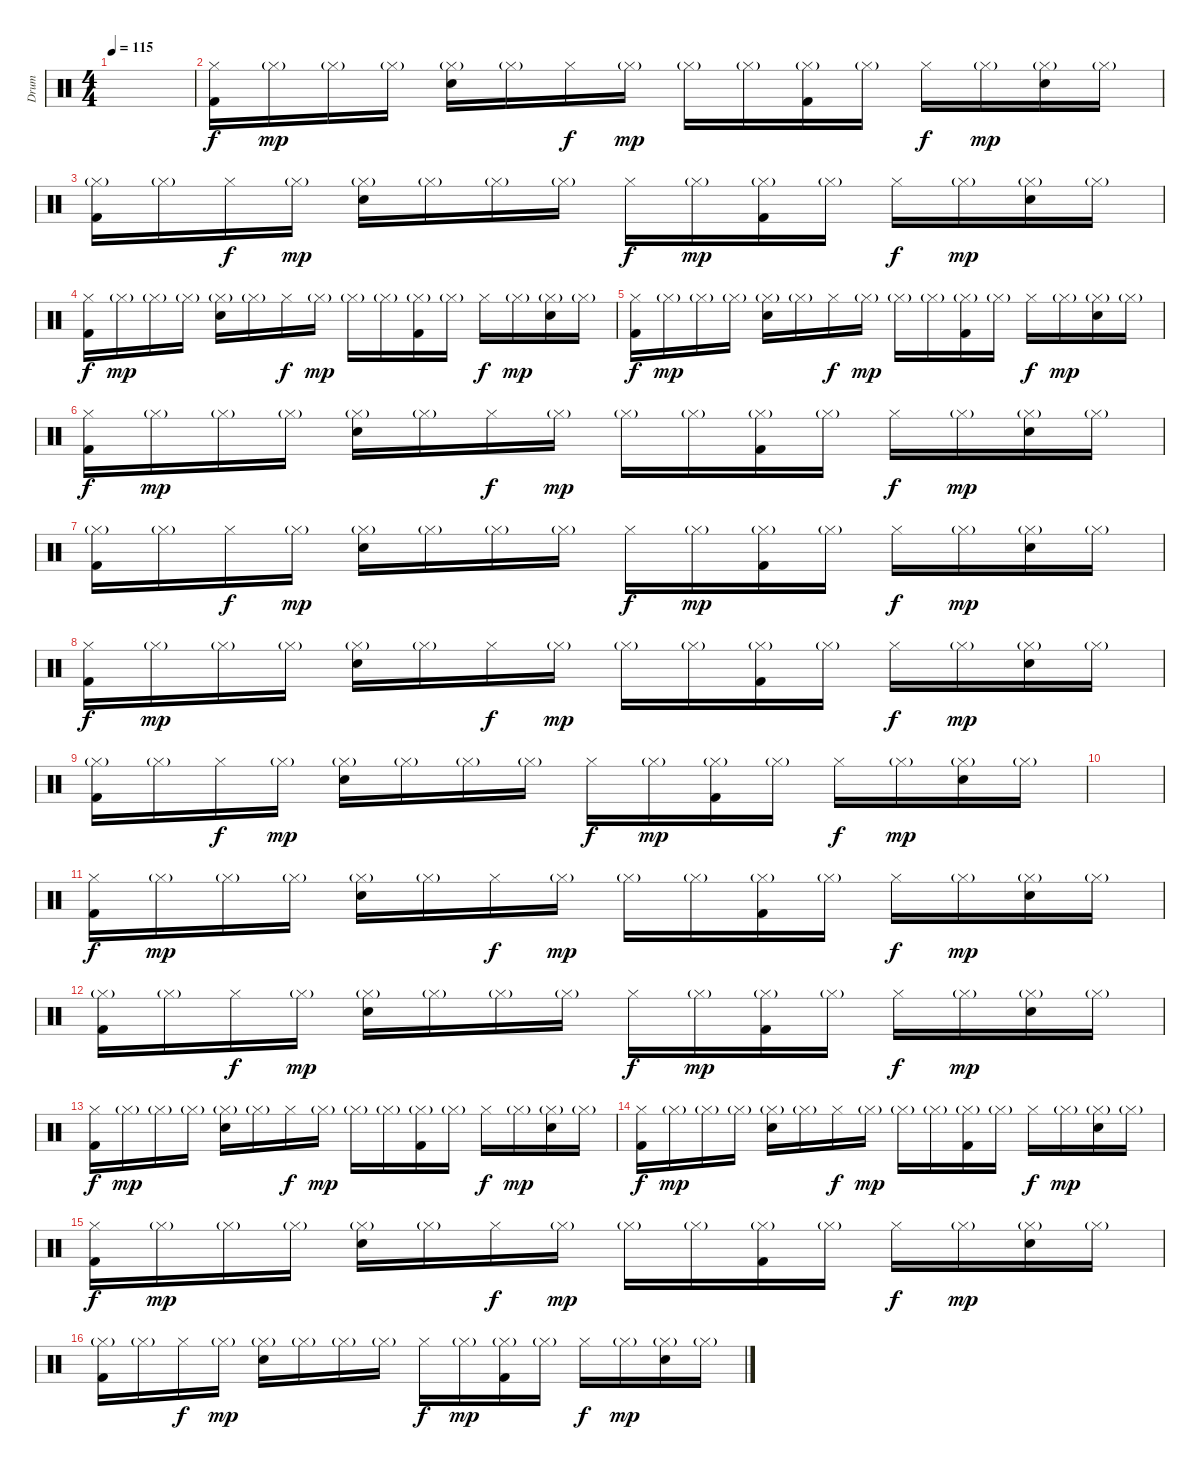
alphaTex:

\track ("Drum" "Drum") {instrument percussion}
\staff {score}
\articulation defaults
\ts (4 4)
\tempo 115
\clef neutral
\ks c
|
("Kick (hit) 2" "Hi-Hat (closed)").16{dy f} "Hi-Hat (closed)"{g}.16{dy mp} "Hi-Hat (closed)"{g}.16 "Hi-Hat (closed)"{g}.16 ("Electric Snare (hit)" "Hi-Hat (closed)"{g}).16 "Hi-Hat (closed)"{g}.16 "Hi-Hat (closed)".16{dy f} "Hi-Hat (closed)"{g}.16{dy mp} "Hi-Hat (closed)"{g}.16 "Hi-Hat (closed)"{g}.16 ("Kick (hit) 2" "Hi-Hat (closed)"{g}).16 "Hi-Hat (closed)"{g}.16 "Hi-Hat (closed)".16{dy f} "Hi-Hat (closed)"{g}.16{dy mp} ("Electric Snare (hit)" "Hi-Hat (closed)"{g}).16 "Hi-Hat (closed)"{g}.16 |
("Kick (hit) 2" "Hi-Hat (closed)"{g}).16 "Hi-Hat (closed)"{g}.16 "Hi-Hat (closed)".16{dy f} "Hi-Hat (closed)"{g}.16{dy mp} ("Electric Snare (hit)" "Hi-Hat (closed)"{g}).16 "Hi-Hat (closed)"{g}.16 "Hi-Hat (closed)"{g}.16 "Hi-Hat (closed)"{g}.16 "Hi-Hat (closed)".16{dy f} "Hi-Hat (closed)"{g}.16{dy mp} ("Kick (hit) 2" "Hi-Hat (closed)"{g}).16 "Hi-Hat (closed)"{g}.16 "Hi-Hat (closed)".16{dy f} "Hi-Hat (closed)"{g}.16{dy mp} ("Electric Snare (hit)" "Hi-Hat (closed)"{g}).16 "Hi-Hat (closed)"{g}.16 |
("Kick (hit) 2" "Hi-Hat (closed)").16{dy f} "Hi-Hat (closed)"{g}.16{dy mp} "Hi-Hat (closed)"{g}.16 "Hi-Hat (closed)"{g}.16 ("Electric Snare (hit)" "Hi-Hat (closed)"{g}).16 "Hi-Hat (closed)"{g}.16 "Hi-Hat (closed)".16{dy f} "Hi-Hat (closed)"{g}.16{dy mp} "Hi-Hat (closed)"{g}.16 "Hi-Hat (closed)"{g}.16 ("Kick (hit) 2" "Hi-Hat (closed)"{g}).16 "Hi-Hat (closed)"{g}.16 "Hi-Hat (closed)".16{dy f} "Hi-Hat (closed)"{g}.16{dy mp} ("Electric Snare (hit)" "Hi-Hat (closed)"{g}).16 "Hi-Hat (closed)"{g}.16 |
("Kick (hit) 2" "Hi-Hat (closed)").16{dy f} "Hi-Hat (closed)"{g}.16{dy mp} "Hi-Hat (closed)"{g}.16 "Hi-Hat (closed)"{g}.16 ("Electric Snare (hit)" "Hi-Hat (closed)"{g}).16 "Hi-Hat (closed)"{g}.16 "Hi-Hat (closed)".16{dy f} "Hi-Hat (closed)"{g}.16{dy mp} "Hi-Hat (closed)"{g}.16 "Hi-Hat (closed)"{g}.16 ("Kick (hit) 2" "Hi-Hat (closed)"{g}).16 "Hi-Hat (closed)"{g}.16 "Hi-Hat (closed)".16{dy f} "Hi-Hat (closed)"{g}.16{dy mp} ("Electric Snare (hit)" "Hi-Hat (closed)"{g}).16 "Hi-Hat (closed)"{g}.16 |
("Kick (hit) 2" "Hi-Hat (closed)").16{dy f} "Hi-Hat (closed)"{g}.16{dy mp} "Hi-Hat (closed)"{g}.16 "Hi-Hat (closed)"{g}.16 ("Electric Snare (hit)" "Hi-Hat (closed)"{g}).16 "Hi-Hat (closed)"{g}.16 "Hi-Hat (closed)".16{dy f} "Hi-Hat (closed)"{g}.16{dy mp} "Hi-Hat (closed)"{g}.16 "Hi-Hat (closed)"{g}.16 ("Kick (hit) 2" "Hi-Hat (closed)"{g}).16 "Hi-Hat (closed)"{g}.16 "Hi-Hat (closed)".16{dy f} "Hi-Hat (closed)"{g}.16{dy mp} ("Electric Snare (hit)" "Hi-Hat (closed)"{g}).16 "Hi-Hat (closed)"{g}.16 |
("Kick (hit) 2" "Hi-Hat (closed)"{g}).16 "Hi-Hat (closed)"{g}.16 "Hi-Hat (closed)".16{dy f} "Hi-Hat (closed)"{g}.16{dy mp} ("Electric Snare (hit)" "Hi-Hat (closed)"{g}).16 "Hi-Hat (closed)"{g}.16 "Hi-Hat (closed)"{g}.16 "Hi-Hat (closed)"{g}.16 "Hi-Hat (closed)".16{dy f} "Hi-Hat (closed)"{g}.16{dy mp} ("Kick (hit) 2" "Hi-Hat (closed)"{g}).16 "Hi-Hat (closed)"{g}.16 "Hi-Hat (closed)".16{dy f} "Hi-Hat (closed)"{g}.16{dy mp} ("Electric Snare (hit)" "Hi-Hat (closed)"{g}).16 "Hi-Hat (closed)"{g}.16 |
("Kick (hit) 2" "Hi-Hat (closed)").16{dy f} "Hi-Hat (closed)"{g}.16{dy mp} "Hi-Hat (closed)"{g}.16 "Hi-Hat (closed)"{g}.16 ("Electric Snare (hit)" "Hi-Hat (closed)"{g}).16 "Hi-Hat (closed)"{g}.16 "Hi-Hat (closed)".16{dy f} "Hi-Hat (closed)"{g}.16{dy mp} "Hi-Hat (closed)"{g}.16 "Hi-Hat (closed)"{g}.16 ("Kick (hit) 2" "Hi-Hat (closed)"{g}).16 "Hi-Hat (closed)"{g}.16 "Hi-Hat (closed)".16{dy f} "Hi-Hat (closed)"{g}.16{dy mp} ("Electric Snare (hit)" "Hi-Hat (closed)"{g}).16 "Hi-Hat (closed)"{g}.16 |
("Kick (hit) 2" "Hi-Hat (closed)"{g}).16 "Hi-Hat (closed)"{g}.16 "Hi-Hat (closed)".16{dy f} "Hi-Hat (closed)"{g}.16{dy mp} ("Electric Snare (hit)" "Hi-Hat (closed)"{g}).16 "Hi-Hat (closed)"{g}.16 "Hi-Hat (closed)"{g}.16 "Hi-Hat (closed)"{g}.16 "Hi-Hat (closed)".16{dy f} "Hi-Hat (closed)"{g}.16{dy mp} ("Kick (hit) 2" "Hi-Hat (closed)"{g}).16 "Hi-Hat (closed)"{g}.16 "Hi-Hat (closed)".16{dy f} "Hi-Hat (closed)"{g}.16{dy mp} ("Electric Snare (hit)" "Hi-Hat (closed)"{g}).16 "Hi-Hat (closed)"{g}.16 |
|
("Kick (hit) 2" "Hi-Hat (closed)").16{dy f} "Hi-Hat (closed)"{g}.16{dy mp} "Hi-Hat (closed)"{g}.16 "Hi-Hat (closed)"{g}.16 ("Electric Snare (hit)" "Hi-Hat (closed)"{g}).16 "Hi-Hat (closed)"{g}.16 "Hi-Hat (closed)".16{dy f} "Hi-Hat (closed)"{g}.16{dy mp} "Hi-Hat (closed)"{g}.16 "Hi-Hat (closed)"{g}.16 ("Kick (hit) 2" "Hi-Hat (closed)"{g}).16 "Hi-Hat (closed)"{g}.16 "Hi-Hat (closed)".16{dy f} "Hi-Hat (closed)"{g}.16{dy mp} ("Electric Snare (hit)" "Hi-Hat (closed)"{g}).16 "Hi-Hat (closed)"{g}.16 |
("Kick (hit) 2" "Hi-Hat (closed)"{g}).16 "Hi-Hat (closed)"{g}.16 "Hi-Hat (closed)".16{dy f} "Hi-Hat (closed)"{g}.16{dy mp} ("Electric Snare (hit)" "Hi-Hat (closed)"{g}).16 "Hi-Hat (closed)"{g}.16 "Hi-Hat (closed)"{g}.16 "Hi-Hat (closed)"{g}.16 "Hi-Hat (closed)".16{dy f} "Hi-Hat (closed)"{g}.16{dy mp} ("Kick (hit) 2" "Hi-Hat (closed)"{g}).16 "Hi-Hat (closed)"{g}.16 "Hi-Hat (closed)".16{dy f} "Hi-Hat (closed)"{g}.16{dy mp} ("Electric Snare (hit)" "Hi-Hat (closed)"{g}).16 "Hi-Hat (closed)"{g}.16 |
("Kick (hit) 2" "Hi-Hat (closed)").16{dy f} "Hi-Hat (closed)"{g}.16{dy mp} "Hi-Hat (closed)"{g}.16 "Hi-Hat (closed)"{g}.16 ("Electric Snare (hit)" "Hi-Hat (closed)"{g}).16 "Hi-Hat (closed)"{g}.16 "Hi-Hat (closed)".16{dy f} "Hi-Hat (closed)"{g}.16{dy mp} "Hi-Hat (closed)"{g}.16 "Hi-Hat (closed)"{g}.16 ("Kick (hit) 2" "Hi-Hat (closed)"{g}).16 "Hi-Hat (closed)"{g}.16 "Hi-Hat (closed)".16{dy f} "Hi-Hat (closed)"{g}.16{dy mp} ("Electric Snare (hit)" "Hi-Hat (closed)"{g}).16 "Hi-Hat (closed)"{g}.16 |
("Kick (hit) 2" "Hi-Hat (closed)").16{dy f} "Hi-Hat (closed)"{g}.16{dy mp} "Hi-Hat (closed)"{g}.16 "Hi-Hat (closed)"{g}.16 ("Electric Snare (hit)" "Hi-Hat (closed)"{g}).16 "Hi-Hat (closed)"{g}.16 "Hi-Hat (closed)".16{dy f} "Hi-Hat (closed)"{g}.16{dy mp} "Hi-Hat (closed)"{g}.16 "Hi-Hat (closed)"{g}.16 ("Kick (hit) 2" "Hi-Hat (closed)"{g}).16 "Hi-Hat (closed)"{g}.16 "Hi-Hat (closed)".16{dy f} "Hi-Hat (closed)"{g}.16{dy mp} ("Electric Snare (hit)" "Hi-Hat (closed)"{g}).16 "Hi-Hat (closed)"{g}.16 |
("Kick (hit) 2" "Hi-Hat (closed)").16{dy f} "Hi-Hat (closed)"{g}.16{dy mp} "Hi-Hat (closed)"{g}.16 "Hi-Hat (closed)"{g}.16 ("Electric Snare (hit)" "Hi-Hat (closed)"{g}).16 "Hi-Hat (closed)"{g}.16 "Hi-Hat (closed)".16{dy f} "Hi-Hat (closed)"{g}.16{dy mp} "Hi-Hat (closed)"{g}.16 "Hi-Hat (closed)"{g}.16 ("Kick (hit) 2" "Hi-Hat (closed)"{g}).16 "Hi-Hat (closed)"{g}.16 "Hi-Hat (closed)".16{dy f} "Hi-Hat (closed)"{g}.16{dy mp} ("Electric Snare (hit)" "Hi-Hat (closed)"{g}).16 "Hi-Hat (closed)"{g}.16 |
("Kick (hit) 2" "Hi-Hat (closed)"{g}).16 "Hi-Hat (closed)"{g}.16 "Hi-Hat (closed)".16{dy f} "Hi-Hat (closed)"{g}.16{dy mp} ("Electric Snare (hit)" "Hi-Hat (closed)"{g}).16 "Hi-Hat (closed)"{g}.16 "Hi-Hat (closed)"{g}.16 "Hi-Hat (closed)"{g}.16 "Hi-Hat (closed)".16{dy f} "Hi-Hat (closed)"{g}.16{dy mp} ("Kick (hit) 2" "Hi-Hat (closed)"{g}).16 "Hi-Hat (closed)"{g}.16 "Hi-Hat (closed)".16{dy f} "Hi-Hat (closed)"{g}.16{dy mp} ("Electric Snare (hit)" "Hi-Hat (closed)"{g}).16 "Hi-Hat (closed)"{g}.16
